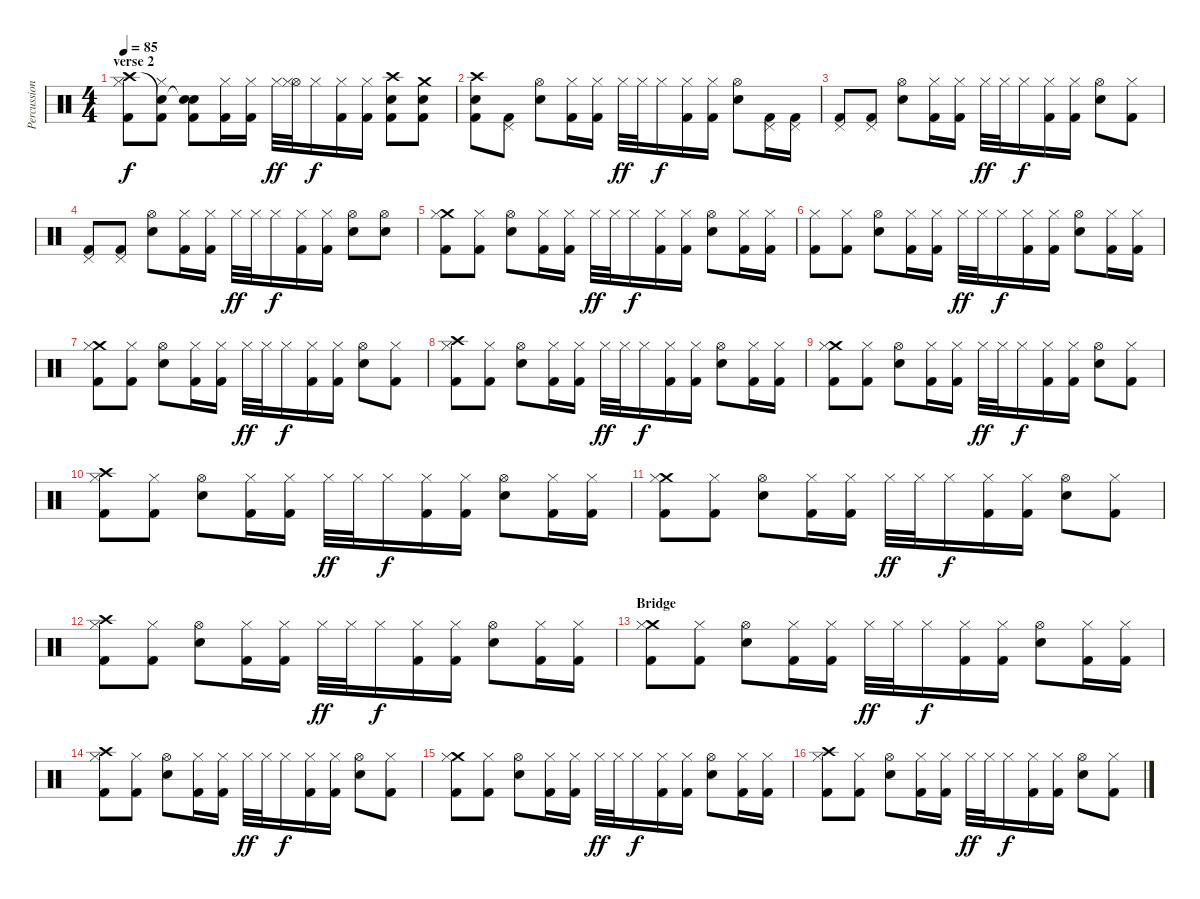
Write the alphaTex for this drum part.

\track ("Percussion" "Percussion") {instrument percussion}
\staff {score}
\articulation defaults
\ts (4 4)
\section ("" "verse 2")
\tempo 85
\clef neutral
\ks c
("Crash high (hit)" "Hi-Hat (closed)" "Kick (hit) 2").8{dy f} ("Snare (hit)"{t} "Hi-Hat (closed)" "Kick (hit) 2").8 ("Snare (hit)"{t} "Electric Snare (hit)" "Kick (hit) 2").8 ("Hi-Hat (closed)" "Kick (hit) 2").16 ("Hi-Hat (closed)" "Kick (hit) 2").16 "Hi-Hat (closed)".32{dy ff} ("Hi-Hat (open)" "Hi-Hat (closed)").32 "Hi-Hat (closed)".16{dy f} ("Hi-Hat (closed)" "Kick (hit) 2").16 ("Hi-Hat (closed)" "Kick (hit) 2").16 ("Crash high (hit)" "Electric Snare (hit)" "Kick (hit) 2").8 ("Crash medium (hit)" "Electric Snare (hit)" "Kick (hit) 2").8 |
("Crash high (hit)" "Electric Snare (hit)" "Kick (hit) 2").8 ("Pedal Hi-Hat (hit)" "Kick (hit) 2").8 ("Hi-Hat (open)" "Electric Snare (hit)").8 ("Hi-Hat (closed)" "Kick (hit) 2").16 ("Hi-Hat (closed)" "Kick (hit) 2").16 "Hi-Hat (closed)".32{dy ff} "Hi-Hat (closed)".32 "Hi-Hat (closed)".16{dy f} ("Hi-Hat (closed)" "Kick (hit) 2").16 ("Hi-Hat (closed)" "Kick (hit) 2").16 ("Hi-Hat (open)" "Electric Snare (hit)").8 ("Pedal Hi-Hat (hit)" "Kick (hit) 2").16 ("Pedal Hi-Hat (hit)" "Kick (hit) 2").16 |
("Pedal Hi-Hat (hit)" "Kick (hit) 2").8 ("Pedal Hi-Hat (hit)" "Kick (hit) 2").8 ("Hi-Hat (open)" "Electric Snare (hit)").8 ("Hi-Hat (closed)" "Kick (hit) 2").16 ("Hi-Hat (closed)" "Kick (hit) 2").16 "Hi-Hat (closed)".32{dy ff} "Hi-Hat (closed)".32 "Hi-Hat (closed)".16{dy f} ("Hi-Hat (closed)" "Kick (hit) 2").16 ("Hi-Hat (closed)" "Kick (hit) 2").16 ("Hi-Hat (open)" "Electric Snare (hit)").8 ("Hi-Hat (closed)" "Kick (hit) 2").8 |
("Pedal Hi-Hat (hit)" "Kick (hit) 2").8 ("Pedal Hi-Hat (hit)" "Kick (hit) 2").8 ("Hi-Hat (open)" "Electric Snare (hit)").8 ("Hi-Hat (closed)" "Kick (hit) 2").16 ("Hi-Hat (closed)" "Kick (hit) 2").16 "Hi-Hat (closed)".32{dy ff} "Hi-Hat (closed)".32 "Hi-Hat (closed)".16{dy f} ("Hi-Hat (closed)" "Kick (hit) 2").16 ("Hi-Hat (closed)" "Kick (hit) 2").16 ("Hi-Hat (open)" "Electric Snare (hit)").8 ("Hi-Hat (open)" "Electric Snare (hit)").8 |
("Crash medium (hit)" "Hi-Hat (closed)" "Kick (hit) 2").8 ("Hi-Hat (closed)" "Kick (hit) 2").8 ("Hi-Hat (open)" "Electric Snare (hit)").8 ("Hi-Hat (closed)" "Kick (hit) 2").16 ("Hi-Hat (closed)" "Kick (hit) 2").16 "Hi-Hat (closed)".32{dy ff} "Hi-Hat (closed)".32 "Hi-Hat (closed)".16{dy f} ("Hi-Hat (closed)" "Kick (hit) 2").16 ("Hi-Hat (closed)" "Kick (hit) 2").16 ("Hi-Hat (open)" "Electric Snare (hit)").8 ("Hi-Hat (closed)" "Kick (hit) 2").16 ("Hi-Hat (closed)" "Kick (hit) 2").16 |
("Hi-Hat (closed)" "Kick (hit) 2").8 ("Hi-Hat (closed)" "Kick (hit) 2").8 ("Hi-Hat (open)" "Electric Snare (hit)").8 ("Hi-Hat (closed)" "Kick (hit) 2").16 ("Hi-Hat (closed)" "Kick (hit) 2").16 "Hi-Hat (closed)".32{dy ff} "Hi-Hat (closed)".32 "Hi-Hat (closed)".16{dy f} ("Hi-Hat (closed)" "Kick (hit) 2").16 ("Hi-Hat (closed)" "Kick (hit) 2").16 ("Hi-Hat (open)" "Electric Snare (hit)").8 ("Hi-Hat (closed)" "Kick (hit) 2").16 ("Hi-Hat (closed)" "Kick (hit) 2").16 |
("Crash medium (hit)" "Hi-Hat (closed)" "Kick (hit) 2").8 ("Hi-Hat (closed)" "Kick (hit) 2").8 ("Hi-Hat (open)" "Electric Snare (hit)").8 ("Hi-Hat (closed)" "Kick (hit) 2").16 ("Hi-Hat (closed)" "Kick (hit) 2").16 "Hi-Hat (closed)".32{dy ff} "Hi-Hat (closed)".32 "Hi-Hat (closed)".16{dy f} ("Hi-Hat (closed)" "Kick (hit) 2").16 ("Hi-Hat (closed)" "Kick (hit) 2").16 ("Hi-Hat (open)" "Electric Snare (hit)").8 ("Hi-Hat (closed)" "Kick (hit) 2").8 |
("Crash high (hit)" "Hi-Hat (closed)" "Kick (hit) 2").8 ("Hi-Hat (closed)" "Kick (hit) 2").8 ("Hi-Hat (open)" "Electric Snare (hit)").8 ("Hi-Hat (closed)" "Kick (hit) 2").16 ("Hi-Hat (closed)" "Kick (hit) 2").16 "Hi-Hat (closed)".32{dy ff} "Hi-Hat (closed)".32 "Hi-Hat (closed)".16{dy f} ("Hi-Hat (closed)" "Kick (hit) 2").16 ("Hi-Hat (closed)" "Kick (hit) 2").16 ("Hi-Hat (open)" "Electric Snare (hit)").8 ("Hi-Hat (closed)" "Kick (hit) 2").16 ("Hi-Hat (closed)" "Kick (hit) 2").16 |
("Crash medium (hit)" "Hi-Hat (closed)" "Kick (hit) 2").8 ("Hi-Hat (closed)" "Kick (hit) 2").8 ("Hi-Hat (open)" "Electric Snare (hit)").8 ("Hi-Hat (closed)" "Kick (hit) 2").16 ("Hi-Hat (closed)" "Kick (hit) 2").16 "Hi-Hat (closed)".32{dy ff} "Hi-Hat (closed)".32 "Hi-Hat (closed)".16{dy f} ("Hi-Hat (closed)" "Kick (hit) 2").16 ("Hi-Hat (closed)" "Kick (hit) 2").16 ("Hi-Hat (open)" "Electric Snare (hit)").8 ("Hi-Hat (closed)" "Kick (hit) 2").8 |
("Crash high (hit)" "Hi-Hat (closed)" "Kick (hit) 2").8 ("Hi-Hat (closed)" "Kick (hit) 2").8 ("Hi-Hat (open)" "Electric Snare (hit)").8 ("Hi-Hat (closed)" "Kick (hit) 2").16 ("Hi-Hat (closed)" "Kick (hit) 2").16 "Hi-Hat (closed)".32{dy ff} "Hi-Hat (closed)".32 "Hi-Hat (closed)".16{dy f} ("Hi-Hat (closed)" "Kick (hit) 2").16 ("Hi-Hat (closed)" "Kick (hit) 2").16 ("Hi-Hat (open)" "Electric Snare (hit)").8 ("Hi-Hat (closed)" "Kick (hit) 2").16 ("Hi-Hat (closed)" "Kick (hit) 2").16 |
("Crash medium (hit)" "Hi-Hat (closed)" "Kick (hit) 2").8 ("Hi-Hat (closed)" "Kick (hit) 2").8 ("Hi-Hat (open)" "Electric Snare (hit)").8 ("Hi-Hat (closed)" "Kick (hit) 2").16 ("Hi-Hat (closed)" "Kick (hit) 2").16 "Hi-Hat (closed)".32{dy ff} "Hi-Hat (closed)".32 "Hi-Hat (closed)".16{dy f} ("Hi-Hat (closed)" "Kick (hit) 2").16 ("Hi-Hat (closed)" "Kick (hit) 2").16 ("Hi-Hat (open)" "Electric Snare (hit)").8 ("Hi-Hat (closed)" "Kick (hit) 2").8 |
("Crash high (hit)" "Hi-Hat (closed)" "Kick (hit) 2").8 ("Hi-Hat (closed)" "Kick (hit) 2").8 ("Hi-Hat (open)" "Electric Snare (hit)").8 ("Hi-Hat (closed)" "Kick (hit) 2").16 ("Hi-Hat (closed)" "Kick (hit) 2").16 "Hi-Hat (closed)".32{dy ff} "Hi-Hat (closed)".32 "Hi-Hat (closed)".16{dy f} ("Hi-Hat (closed)" "Kick (hit) 2").16 ("Hi-Hat (closed)" "Kick (hit) 2").16 ("Hi-Hat (open)" "Electric Snare (hit)").8 ("Hi-Hat (closed)" "Kick (hit) 2").16 ("Hi-Hat (closed)" "Kick (hit) 2").16 |
\section ("" "Bridge")
("Crash medium (hit)" "Hi-Hat (closed)" "Kick (hit) 2").8 ("Hi-Hat (closed)" "Kick (hit) 2").8 ("Hi-Hat (open)" "Electric Snare (hit)").8 ("Hi-Hat (closed)" "Kick (hit) 2").16 ("Hi-Hat (closed)" "Kick (hit) 2").16 "Hi-Hat (closed)".32{dy ff} "Hi-Hat (closed)".32 "Hi-Hat (closed)".16{dy f} ("Hi-Hat (closed)" "Kick (hit) 2").16 ("Hi-Hat (closed)" "Kick (hit) 2").16 ("Hi-Hat (open)" "Electric Snare (hit)").8 ("Hi-Hat (closed)" "Kick (hit) 2").16 ("Hi-Hat (closed)" "Kick (hit) 2").16 |
("Crash high (hit)" "Hi-Hat (closed)" "Kick (hit) 2").8 ("Hi-Hat (closed)" "Kick (hit) 2").8 ("Hi-Hat (open)" "Electric Snare (hit)").8 ("Hi-Hat (closed)" "Kick (hit) 2").16 ("Hi-Hat (closed)" "Kick (hit) 2").16 "Hi-Hat (closed)".32{dy ff} "Hi-Hat (closed)".32 "Hi-Hat (closed)".16{dy f} ("Hi-Hat (closed)" "Kick (hit) 2").16 ("Hi-Hat (closed)" "Kick (hit) 2").16 ("Hi-Hat (open)" "Electric Snare (hit)").8 ("Hi-Hat (closed)" "Kick (hit) 2").8 |
("Crash medium (hit)" "Hi-Hat (closed)" "Kick (hit) 2").8 ("Hi-Hat (closed)" "Kick (hit) 2").8 ("Hi-Hat (open)" "Electric Snare (hit)").8 ("Hi-Hat (closed)" "Kick (hit) 2").16 ("Hi-Hat (closed)" "Kick (hit) 2").16 "Hi-Hat (closed)".32{dy ff} "Hi-Hat (closed)".32 "Hi-Hat (closed)".16{dy f} ("Hi-Hat (closed)" "Kick (hit) 2").16 ("Hi-Hat (closed)" "Kick (hit) 2").16 ("Hi-Hat (open)" "Electric Snare (hit)").8 ("Hi-Hat (closed)" "Kick (hit) 2").16 ("Hi-Hat (closed)" "Kick (hit) 2").16 |
("Crash high (hit)" "Hi-Hat (closed)" "Kick (hit) 2").8 ("Hi-Hat (closed)" "Kick (hit) 2").8 ("Hi-Hat (open)" "Electric Snare (hit)").8 ("Hi-Hat (closed)" "Kick (hit) 2").16 ("Hi-Hat (closed)" "Kick (hit) 2").16 "Hi-Hat (closed)".32{dy ff} "Hi-Hat (closed)".32 "Hi-Hat (closed)".16{dy f} ("Hi-Hat (closed)" "Kick (hit) 2").16 ("Hi-Hat (closed)" "Kick (hit) 2").16 ("Hi-Hat (open)" "Electric Snare (hit)").8 ("Hi-Hat (closed)" "Kick (hit) 2").8
